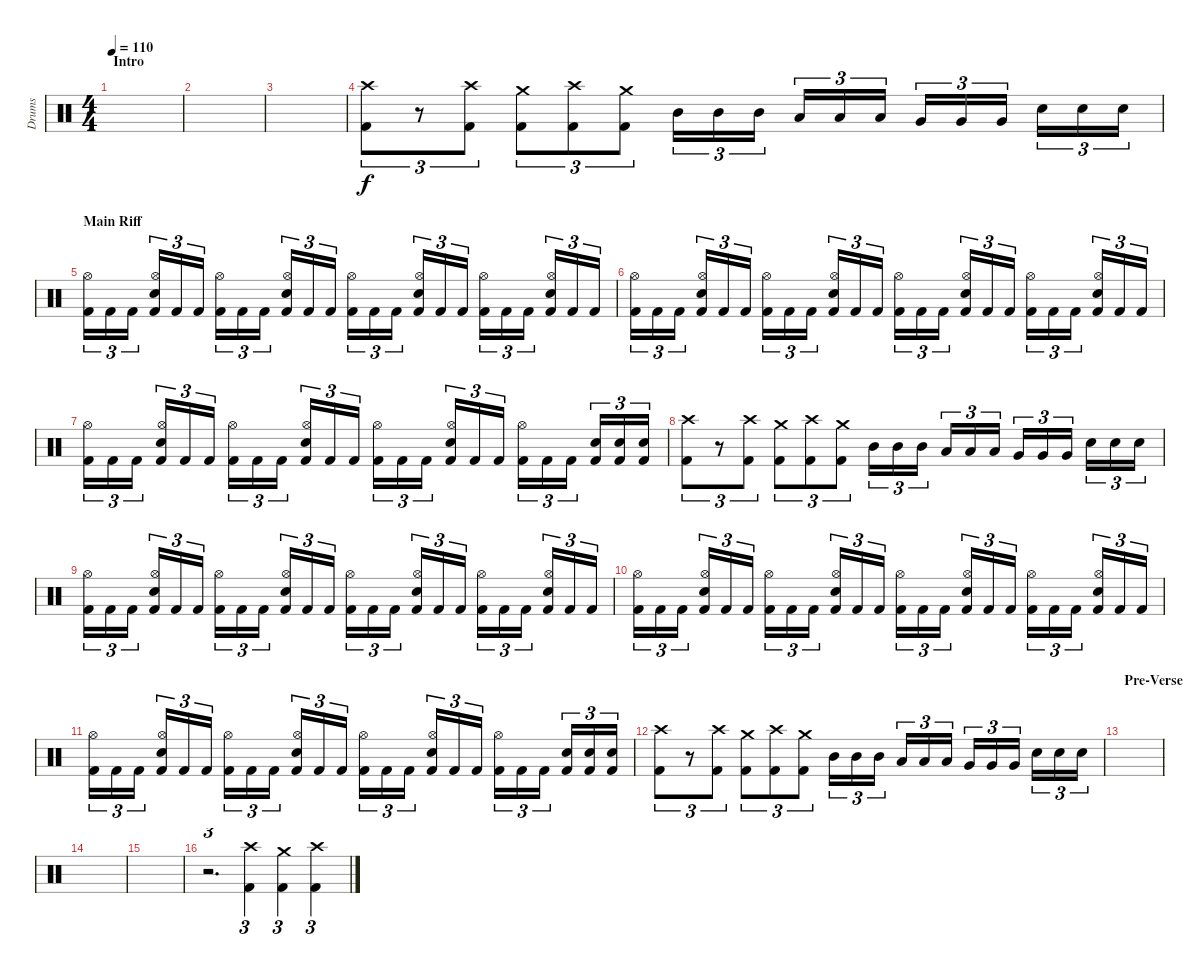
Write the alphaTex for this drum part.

\track ("Drums" "Drums") {instrument percussion}
\staff {score}
\articulation defaults
\ts (4 4)
\section ("" "Intro")
\tempo 110
\clef neutral
\ks c
|
|
|
("Crash high (hit)" "Kick (hit) 2").8{tu (3 2)} r.8{tu (3 2)} ("Crash high (hit)" "Kick (hit) 2").8{tu (3 2)} ("Crash medium (hit)" "Kick (hit) 2").8{tu (3 2)} ("Crash high (hit)" "Kick (hit) 2").8{tu (3 2)} ("Crash medium (hit)" "Kick (hit) 2").8{tu (3 2)} "Mid Tom (hit)".16{tu (3 2)} "Mid Tom (hit)".16{tu (3 2)} "Mid Tom (hit)".16{tu (3 2)} "Low Tom (hit)".16{tu (3 2)} "Low Tom (hit)".16{tu (3 2)} "Low Tom (hit)".16{tu (3 2)} "Very Low Tom (hit)".16{tu (3 2)} "Very Low Tom (hit)".16{tu (3 2)} "Very Low Tom (hit)".16{tu (3 2)} "Snare (hit) 2".16{tu (3 2)} "Snare (hit) 2".16{tu (3 2)} "Snare (hit) 2".16{tu (3 2)} |
\section ("" "Main Riff")
("Hi-Hat (open)" "Kick (hit) 2").16{tu (3 2)} "Kick (hit) 2".16{tu (3 2)} "Kick (hit) 2".16{tu (3 2)} ("Hi-Hat (open)" "Electric Snare (hit)" "Kick (hit) 2").16{tu (3 2)} "Kick (hit) 2".16{tu (3 2)} "Kick (hit) 2".16{tu (3 2)} ("Hi-Hat (open)" "Kick (hit) 2").16{tu (3 2)} "Kick (hit) 2".16{tu (3 2)} "Kick (hit) 2".16{tu (3 2)} ("Hi-Hat (open)" "Electric Snare (hit)" "Kick (hit) 2").16{tu (3 2)} "Kick (hit) 2".16{tu (3 2)} "Kick (hit) 2".16{tu (3 2)} ("Hi-Hat (open)" "Kick (hit) 2").16{tu (3 2)} "Kick (hit) 2".16{tu (3 2)} "Kick (hit) 2".16{tu (3 2)} ("Hi-Hat (open)" "Electric Snare (hit)" "Kick (hit) 2").16{tu (3 2)} "Kick (hit) 2".16{tu (3 2)} "Kick (hit) 2".16{tu (3 2)} ("Hi-Hat (open)" "Kick (hit) 2").16{tu (3 2)} "Kick (hit) 2".16{tu (3 2)} "Kick (hit) 2".16{tu (3 2)} ("Hi-Hat (open)" "Electric Snare (hit)" "Kick (hit) 2").16{tu (3 2)} "Kick (hit) 2".16{tu (3 2)} "Kick (hit) 2".16{tu (3 2)} |
("Hi-Hat (open)" "Kick (hit) 2").16{tu (3 2)} "Kick (hit) 2".16{tu (3 2)} "Kick (hit) 2".16{tu (3 2)} ("Hi-Hat (open)" "Electric Snare (hit)" "Kick (hit) 2").16{tu (3 2)} "Kick (hit) 2".16{tu (3 2)} "Kick (hit) 2".16{tu (3 2)} ("Hi-Hat (open)" "Kick (hit) 2").16{tu (3 2)} "Kick (hit) 2".16{tu (3 2)} "Kick (hit) 2".16{tu (3 2)} ("Hi-Hat (open)" "Electric Snare (hit)" "Kick (hit) 2").16{tu (3 2)} "Kick (hit) 2".16{tu (3 2)} "Kick (hit) 2".16{tu (3 2)} ("Hi-Hat (open)" "Kick (hit) 2").16{tu (3 2)} "Kick (hit) 2".16{tu (3 2)} "Kick (hit) 2".16{tu (3 2)} ("Hi-Hat (open)" "Electric Snare (hit)" "Kick (hit) 2").16{tu (3 2)} "Kick (hit) 2".16{tu (3 2)} "Kick (hit) 2".16{tu (3 2)} ("Hi-Hat (open)" "Kick (hit) 2").16{tu (3 2)} "Kick (hit) 2".16{tu (3 2)} "Kick (hit) 2".16{tu (3 2)} ("Hi-Hat (open)" "Electric Snare (hit)" "Kick (hit) 2").16{tu (3 2)} "Kick (hit) 2".16{tu (3 2)} "Kick (hit) 2".16{tu (3 2)} |
("Hi-Hat (open)" "Kick (hit) 2").16{tu (3 2)} "Kick (hit) 2".16{tu (3 2)} "Kick (hit) 2".16{tu (3 2)} ("Hi-Hat (open)" "Electric Snare (hit)" "Kick (hit) 2").16{tu (3 2)} "Kick (hit) 2".16{tu (3 2)} "Kick (hit) 2".16{tu (3 2)} ("Hi-Hat (open)" "Kick (hit) 2").16{tu (3 2)} "Kick (hit) 2".16{tu (3 2)} "Kick (hit) 2".16{tu (3 2)} ("Hi-Hat (open)" "Electric Snare (hit)" "Kick (hit) 2").16{tu (3 2)} "Kick (hit) 2".16{tu (3 2)} "Kick (hit) 2".16{tu (3 2)} ("Hi-Hat (open)" "Kick (hit) 2").16{tu (3 2)} "Kick (hit) 2".16{tu (3 2)} "Kick (hit) 2".16{tu (3 2)} ("Hi-Hat (open)" "Electric Snare (hit)" "Kick (hit) 2").16{tu (3 2)} "Kick (hit) 2".16{tu (3 2)} "Kick (hit) 2".16{tu (3 2)} ("Hi-Hat (open)" "Kick (hit) 2").16{tu (3 2)} "Kick (hit) 2".16{tu (3 2)} "Kick (hit) 2".16{tu (3 2)} ("Electric Snare (hit)" "Kick (hit) 2").16{tu (3 2)} ("Electric Snare (hit)" "Kick (hit) 2").16{tu (3 2)} ("Electric Snare (hit)" "Kick (hit) 2").16{tu (3 2)} |
("Crash high (hit)" "Kick (hit) 2").8{tu (3 2)} r.8{tu (3 2)} ("Crash high (hit)" "Kick (hit) 2").8{tu (3 2)} ("Crash medium (hit)" "Kick (hit) 2").8{tu (3 2)} ("Crash high (hit)" "Kick (hit) 2").8{tu (3 2)} ("Crash medium (hit)" "Kick (hit) 2").8{tu (3 2)} "Mid Tom (hit)".16{tu (3 2)} "Mid Tom (hit)".16{tu (3 2)} "Mid Tom (hit)".16{tu (3 2)} "Low Tom (hit)".16{tu (3 2)} "Low Tom (hit)".16{tu (3 2)} "Low Tom (hit)".16{tu (3 2)} "Very Low Tom (hit)".16{tu (3 2)} "Very Low Tom (hit)".16{tu (3 2)} "Very Low Tom (hit)".16{tu (3 2)} "Snare (hit) 2".16{tu (3 2)} "Snare (hit) 2".16{tu (3 2)} "Snare (hit) 2".16{tu (3 2)} |
("Hi-Hat (open)" "Kick (hit) 2").16{tu (3 2)} "Kick (hit) 2".16{tu (3 2)} "Kick (hit) 2".16{tu (3 2)} ("Hi-Hat (open)" "Electric Snare (hit)" "Kick (hit) 2").16{tu (3 2)} "Kick (hit) 2".16{tu (3 2)} "Kick (hit) 2".16{tu (3 2)} ("Hi-Hat (open)" "Kick (hit) 2").16{tu (3 2)} "Kick (hit) 2".16{tu (3 2)} "Kick (hit) 2".16{tu (3 2)} ("Hi-Hat (open)" "Electric Snare (hit)" "Kick (hit) 2").16{tu (3 2)} "Kick (hit) 2".16{tu (3 2)} "Kick (hit) 2".16{tu (3 2)} ("Hi-Hat (open)" "Kick (hit) 2").16{tu (3 2)} "Kick (hit) 2".16{tu (3 2)} "Kick (hit) 2".16{tu (3 2)} ("Hi-Hat (open)" "Electric Snare (hit)" "Kick (hit) 2").16{tu (3 2)} "Kick (hit) 2".16{tu (3 2)} "Kick (hit) 2".16{tu (3 2)} ("Hi-Hat (open)" "Kick (hit) 2").16{tu (3 2)} "Kick (hit) 2".16{tu (3 2)} "Kick (hit) 2".16{tu (3 2)} ("Hi-Hat (open)" "Electric Snare (hit)" "Kick (hit) 2").16{tu (3 2)} "Kick (hit) 2".16{tu (3 2)} "Kick (hit) 2".16{tu (3 2)} |
("Hi-Hat (open)" "Kick (hit) 2").16{tu (3 2)} "Kick (hit) 2".16{tu (3 2)} "Kick (hit) 2".16{tu (3 2)} ("Hi-Hat (open)" "Electric Snare (hit)" "Kick (hit) 2").16{tu (3 2)} "Kick (hit) 2".16{tu (3 2)} "Kick (hit) 2".16{tu (3 2)} ("Hi-Hat (open)" "Kick (hit) 2").16{tu (3 2)} "Kick (hit) 2".16{tu (3 2)} "Kick (hit) 2".16{tu (3 2)} ("Hi-Hat (open)" "Electric Snare (hit)" "Kick (hit) 2").16{tu (3 2)} "Kick (hit) 2".16{tu (3 2)} "Kick (hit) 2".16{tu (3 2)} ("Hi-Hat (open)" "Kick (hit) 2").16{tu (3 2)} "Kick (hit) 2".16{tu (3 2)} "Kick (hit) 2".16{tu (3 2)} ("Hi-Hat (open)" "Electric Snare (hit)" "Kick (hit) 2").16{tu (3 2)} "Kick (hit) 2".16{tu (3 2)} "Kick (hit) 2".16{tu (3 2)} ("Hi-Hat (open)" "Kick (hit) 2").16{tu (3 2)} "Kick (hit) 2".16{tu (3 2)} "Kick (hit) 2".16{tu (3 2)} ("Hi-Hat (open)" "Electric Snare (hit)" "Kick (hit) 2").16{tu (3 2)} "Kick (hit) 2".16{tu (3 2)} "Kick (hit) 2".16{tu (3 2)} |
("Hi-Hat (open)" "Kick (hit) 2").16{tu (3 2)} "Kick (hit) 2".16{tu (3 2)} "Kick (hit) 2".16{tu (3 2)} ("Hi-Hat (open)" "Electric Snare (hit)" "Kick (hit) 2").16{tu (3 2)} "Kick (hit) 2".16{tu (3 2)} "Kick (hit) 2".16{tu (3 2)} ("Hi-Hat (open)" "Kick (hit) 2").16{tu (3 2)} "Kick (hit) 2".16{tu (3 2)} "Kick (hit) 2".16{tu (3 2)} ("Hi-Hat (open)" "Electric Snare (hit)" "Kick (hit) 2").16{tu (3 2)} "Kick (hit) 2".16{tu (3 2)} "Kick (hit) 2".16{tu (3 2)} ("Hi-Hat (open)" "Kick (hit) 2").16{tu (3 2)} "Kick (hit) 2".16{tu (3 2)} "Kick (hit) 2".16{tu (3 2)} ("Hi-Hat (open)" "Electric Snare (hit)" "Kick (hit) 2").16{tu (3 2)} "Kick (hit) 2".16{tu (3 2)} "Kick (hit) 2".16{tu (3 2)} ("Hi-Hat (open)" "Kick (hit) 2").16{tu (3 2)} "Kick (hit) 2".16{tu (3 2)} "Kick (hit) 2".16{tu (3 2)} ("Electric Snare (hit)" "Kick (hit) 2").16{tu (3 2)} ("Electric Snare (hit)" "Kick (hit) 2").16{tu (3 2)} ("Electric Snare (hit)" "Kick (hit) 2").16{tu (3 2)} |
("Crash high (hit)" "Kick (hit) 2").8{tu (3 2)} r.8{tu (3 2)} ("Crash high (hit)" "Kick (hit) 2").8{tu (3 2)} ("Crash medium (hit)" "Kick (hit) 2").8{tu (3 2)} ("Crash high (hit)" "Kick (hit) 2").8{tu (3 2)} ("Crash medium (hit)" "Kick (hit) 2").8{tu (3 2)} "Mid Tom (hit)".16{tu (3 2)} "Mid Tom (hit)".16{tu (3 2)} "Mid Tom (hit)".16{tu (3 2)} "Low Tom (hit)".16{tu (3 2)} "Low Tom (hit)".16{tu (3 2)} "Low Tom (hit)".16{tu (3 2)} "Very Low Tom (hit)".16{tu (3 2)} "Very Low Tom (hit)".16{tu (3 2)} "Very Low Tom (hit)".16{tu (3 2)} "Snare (hit) 2".16{tu (3 2)} "Snare (hit) 2".16{tu (3 2)} "Snare (hit) 2".16{tu (3 2)} |
\section ("" "Pre-Verse")
|
|
|
r.2{d tu (3 2)} ("Crash high (hit)" "Kick (hit) 2").4{tu (3 2)} ("Crash medium (hit)" "Kick (hit) 2").4{tu (3 2)} ("Crash high (hit)" "Kick (hit) 2").4{tu (3 2)}
